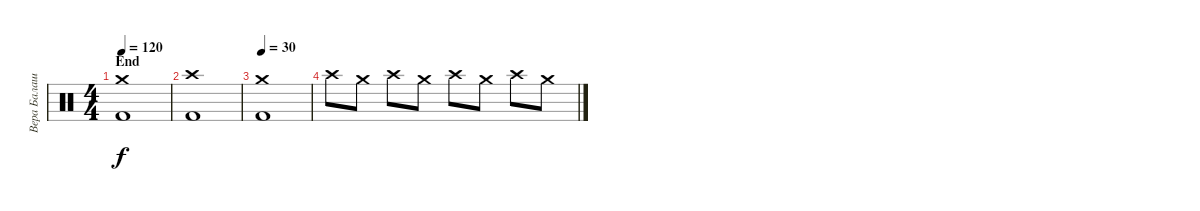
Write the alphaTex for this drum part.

\track ("Вера Балашевич" "Вера Балаш") {instrument percussion}
\staff {score}
\articulation defaults
\ts (4 4)
\section ("" "End")
\tempo 120
\clef neutral
\ks c
("Crash medium (hit)" "Kick (hit) 2").1{dy f} |
("Crash high (hit)" "Kick (hit) 2").1 |
\tempo 30
("Crash medium (hit)" "Kick (hit) 2").1 |
"Crash high (hit)".8 "Crash medium (hit)".8 "Crash high (hit)".8 "Crash medium (hit)".8 "Crash high (hit)".8 "Crash medium (hit)".8 "Crash high (hit)".8 "Crash medium (hit)".8
